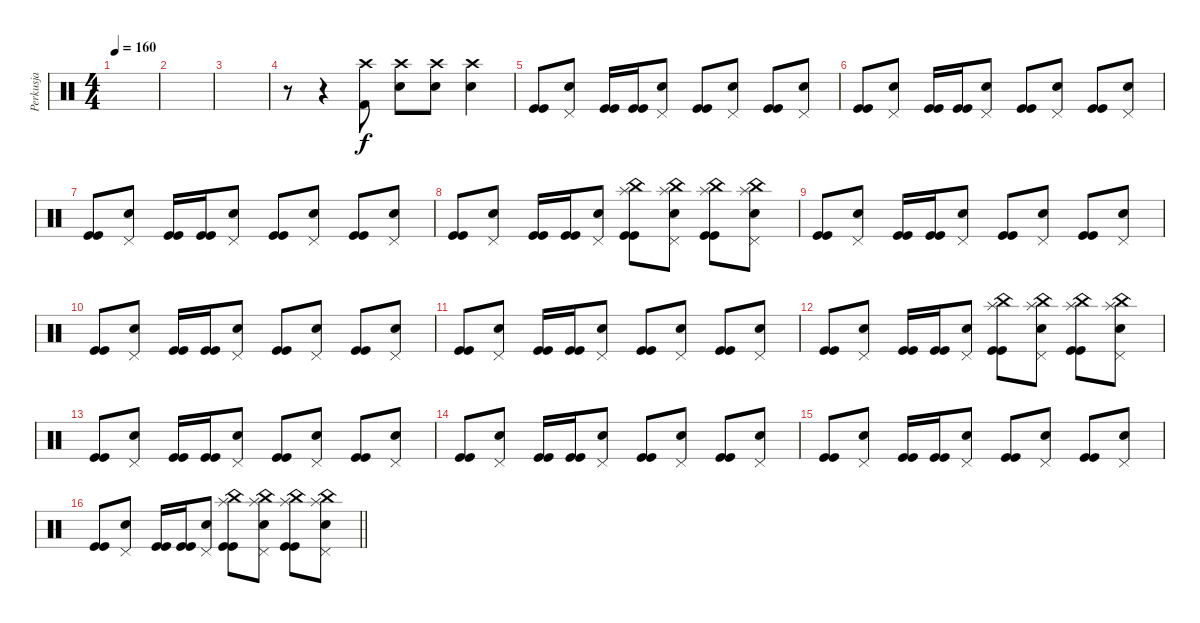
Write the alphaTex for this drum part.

\track ("Perkusja" "Perkusja") {instrument percussion}
\staff {score}
\articulation defaults
\ts (4 4)
\tempo 160
\clef neutral
\ks c
|
|
|
r.8 r.4 ("Crash high (hit)" "Kick (hit) 2").8 ("Crash high (hit)" "Snare (hit) 2").8 ("Crash high (hit)" "Snare (hit) 2").8 ("Crash high (hit)" "Snare (hit) 2").4 |
("Kick (hit)" "Kick (hit)").8 ("Pedal Hi-Hat (hit)" "Snare (hit) 2").8 ("Kick (hit)" "Kick (hit)").16 ("Kick (hit)" "Kick (hit)").16 ("Pedal Hi-Hat (hit)" "Snare (hit) 2").8 ("Kick (hit)" "Kick (hit)").8 ("Pedal Hi-Hat (hit)" "Snare (hit) 2").8 ("Kick (hit)" "Kick (hit)").8 ("Pedal Hi-Hat (hit)" "Snare (hit) 2").8 |
("Kick (hit)" "Kick (hit)").8 ("Pedal Hi-Hat (hit)" "Snare (hit) 2").8 ("Kick (hit)" "Kick (hit)").16 ("Kick (hit)" "Kick (hit)").16 ("Pedal Hi-Hat (hit)" "Snare (hit) 2").8 ("Kick (hit)" "Kick (hit)").8 ("Pedal Hi-Hat (hit)" "Snare (hit) 2").8 ("Kick (hit)" "Kick (hit)").8 ("Pedal Hi-Hat (hit)" "Snare (hit) 2").8 |
("Kick (hit)" "Kick (hit)").8 ("Pedal Hi-Hat (hit)" "Snare (hit) 2").8 ("Kick (hit)" "Kick (hit)").16 ("Kick (hit)" "Kick (hit)").16 ("Pedal Hi-Hat (hit)" "Snare (hit) 2").8 ("Kick (hit)" "Kick (hit)").8 ("Pedal Hi-Hat (hit)" "Snare (hit) 2").8 ("Kick (hit)" "Kick (hit)").8 ("Pedal Hi-Hat (hit)" "Snare (hit) 2").8 |
("Kick (hit)" "Kick (hit)").8 ("Pedal Hi-Hat (hit)" "Snare (hit) 2").8 ("Kick (hit)" "Kick (hit)").16 ("Kick (hit)" "Kick (hit)").16 ("Pedal Hi-Hat (hit)" "Snare (hit) 2").8 ("China (hit)" "Splash (hit)" "Kick (hit)" "Kick (hit)").8 ("China (hit)" "Splash (hit)" "Pedal Hi-Hat (hit)" "Snare (hit) 2").8 ("China (hit)" "Splash (hit)" "Kick (hit)" "Kick (hit)").8 ("China (hit)" "Splash (hit)" "Pedal Hi-Hat (hit)" "Snare (hit) 2").8 |
("Kick (hit)" "Kick (hit)").8 ("Pedal Hi-Hat (hit)" "Snare (hit) 2").8 ("Kick (hit)" "Kick (hit)").16 ("Kick (hit)" "Kick (hit)").16 ("Pedal Hi-Hat (hit)" "Snare (hit) 2").8 ("Kick (hit)" "Kick (hit)").8 ("Pedal Hi-Hat (hit)" "Snare (hit) 2").8 ("Kick (hit)" "Kick (hit)").8 ("Pedal Hi-Hat (hit)" "Snare (hit) 2").8 |
("Kick (hit)" "Kick (hit)").8 ("Pedal Hi-Hat (hit)" "Snare (hit) 2").8 ("Kick (hit)" "Kick (hit)").16 ("Kick (hit)" "Kick (hit)").16 ("Pedal Hi-Hat (hit)" "Snare (hit) 2").8 ("Kick (hit)" "Kick (hit)").8 ("Pedal Hi-Hat (hit)" "Snare (hit) 2").8 ("Kick (hit)" "Kick (hit)").8 ("Pedal Hi-Hat (hit)" "Snare (hit) 2").8 |
("Kick (hit)" "Kick (hit)").8 ("Pedal Hi-Hat (hit)" "Snare (hit) 2").8 ("Kick (hit)" "Kick (hit)").16 ("Kick (hit)" "Kick (hit)").16 ("Pedal Hi-Hat (hit)" "Snare (hit) 2").8 ("Kick (hit)" "Kick (hit)").8 ("Pedal Hi-Hat (hit)" "Snare (hit) 2").8 ("Kick (hit)" "Kick (hit)").8 ("Pedal Hi-Hat (hit)" "Snare (hit) 2").8 |
("Kick (hit)" "Kick (hit)").8 ("Pedal Hi-Hat (hit)" "Snare (hit) 2").8 ("Kick (hit)" "Kick (hit)").16 ("Kick (hit)" "Kick (hit)").16 ("Pedal Hi-Hat (hit)" "Snare (hit) 2").8 ("China (hit)" "Splash (hit)" "Kick (hit)" "Kick (hit)").8 ("China (hit)" "Splash (hit)" "Pedal Hi-Hat (hit)" "Snare (hit) 2").8 ("China (hit)" "Splash (hit)" "Kick (hit)" "Kick (hit)").8 ("China (hit)" "Splash (hit)" "Pedal Hi-Hat (hit)" "Snare (hit) 2").8 |
("Kick (hit)" "Kick (hit)").8 ("Pedal Hi-Hat (hit)" "Snare (hit) 2").8 ("Kick (hit)" "Kick (hit)").16 ("Kick (hit)" "Kick (hit)").16 ("Pedal Hi-Hat (hit)" "Snare (hit) 2").8 ("Kick (hit)" "Kick (hit)").8 ("Pedal Hi-Hat (hit)" "Snare (hit) 2").8 ("Kick (hit)" "Kick (hit)").8 ("Pedal Hi-Hat (hit)" "Snare (hit) 2").8 |
("Kick (hit)" "Kick (hit)").8 ("Pedal Hi-Hat (hit)" "Snare (hit) 2").8 ("Kick (hit)" "Kick (hit)").16 ("Kick (hit)" "Kick (hit)").16 ("Pedal Hi-Hat (hit)" "Snare (hit) 2").8 ("Kick (hit)" "Kick (hit)").8 ("Pedal Hi-Hat (hit)" "Snare (hit) 2").8 ("Kick (hit)" "Kick (hit)").8 ("Pedal Hi-Hat (hit)" "Snare (hit) 2").8 |
("Kick (hit)" "Kick (hit)").8 ("Pedal Hi-Hat (hit)" "Snare (hit) 2").8 ("Kick (hit)" "Kick (hit)").16 ("Kick (hit)" "Kick (hit)").16 ("Pedal Hi-Hat (hit)" "Snare (hit) 2").8 ("Kick (hit)" "Kick (hit)").8 ("Pedal Hi-Hat (hit)" "Snare (hit) 2").8 ("Kick (hit)" "Kick (hit)").8 ("Pedal Hi-Hat (hit)" "Snare (hit) 2").8 |
\barLineRight lightlight
("Kick (hit)" "Kick (hit)").8 ("Pedal Hi-Hat (hit)" "Snare (hit) 2").8 ("Kick (hit)" "Kick (hit)").16 ("Kick (hit)" "Kick (hit)").16 ("Pedal Hi-Hat (hit)" "Snare (hit) 2").8 ("China (hit)" "Splash (hit)" "Kick (hit)" "Kick (hit)").8 ("China (hit)" "Splash (hit)" "Pedal Hi-Hat (hit)" "Snare (hit) 2").8 ("China (hit)" "Splash (hit)" "Kick (hit)" "Kick (hit)").8 ("China (hit)" "Splash (hit)" "Pedal Hi-Hat (hit)" "Snare (hit) 2").8
